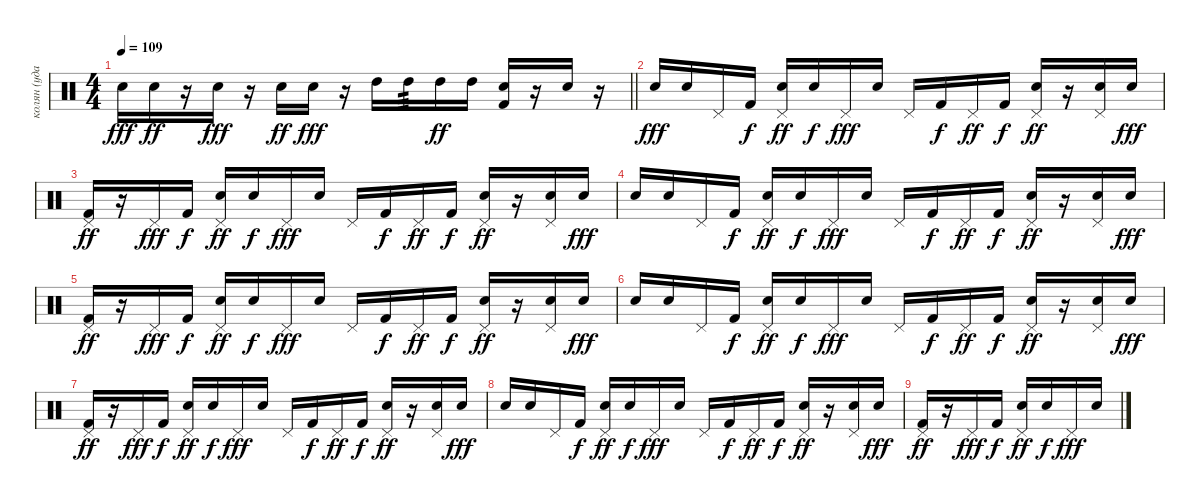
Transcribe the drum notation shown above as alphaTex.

\track ("колян (ударные) v2.0" "колян (уда") {instrument percussion}
\staff
\articulation defaults
\ts (4 4)
\tempo 109
\clef neutral
\barLineRight lightlight
\ks c "Electric Snare (hit)".16{dy fff} "Electric Snare (hit)".16{dy ff}
r.16 "Electric Snare (hit)".16{dy fff} r.16 "Electric Snare (hit)".16{dy ff} "Electric Snare (hit)".16{dy fff} r.16 "High Tom (hit)".16 "High Tom (hit)".16{tp 3} "High Tom (hit)".16{dy ff} "High Tom (hit)".16 ("Snare (hit) 2" "Kick (hit) 2").16 r.16 "Electric Snare (hit)".16 r.16 |
"Snare (hit) 2".16{dy fff} "Snare (hit) 2".16 "Pedal Hi-Hat (hit)".16 "Kick (hit) 2".16{dy f} ("Snare (hit) 2" "Pedal Hi-Hat (hit)").16{dy ff} "Snare (hit) 2".16{dy f} "Pedal Hi-Hat (hit)".16{dy fff} "Snare (hit) 2".16 "Pedal Hi-Hat (hit)".16 "Kick (hit) 2".16{dy f} "Pedal Hi-Hat (hit)".16{dy ff} "Kick (hit) 2".16{dy f} ("Snare (hit) 2" "Pedal Hi-Hat (hit)").16{dy ff} r.16 ("Snare (hit) 2" "Pedal Hi-Hat (hit)").16 "Snare (hit) 2".16{dy fff} |
("Pedal Hi-Hat (hit)" "Kick (hit) 2").16{dy ff} r.16 "Pedal Hi-Hat (hit)".16{dy fff} "Kick (hit) 2".16{dy f} ("Snare (hit) 2" "Pedal Hi-Hat (hit)").16{dy ff} "Snare (hit) 2".16{dy f} "Pedal Hi-Hat (hit)".16{dy fff} "Snare (hit) 2".16 "Pedal Hi-Hat (hit)".16 "Kick (hit) 2".16{dy f} "Pedal Hi-Hat (hit)".16{dy ff} "Kick (hit) 2".16{dy f} ("Snare (hit) 2" "Pedal Hi-Hat (hit)").16{dy ff} r.16 ("Snare (hit) 2" "Pedal Hi-Hat (hit)").16 "Snare (hit) 2".16{dy fff} |
"Snare (hit) 2".16 "Snare (hit) 2".16 "Pedal Hi-Hat (hit)".16 "Kick (hit) 2".16{dy f} ("Snare (hit) 2" "Pedal Hi-Hat (hit)").16{dy ff} "Snare (hit) 2".16{dy f} "Pedal Hi-Hat (hit)".16{dy fff} "Snare (hit) 2".16 "Pedal Hi-Hat (hit)".16 "Kick (hit) 2".16{dy f} "Pedal Hi-Hat (hit)".16{dy ff} "Kick (hit) 2".16{dy f} ("Snare (hit) 2" "Pedal Hi-Hat (hit)").16{dy ff} r.16 ("Snare (hit) 2" "Pedal Hi-Hat (hit)").16 "Snare (hit) 2".16{dy fff} |
("Pedal Hi-Hat (hit)" "Kick (hit) 2").16{dy ff} r.16 "Pedal Hi-Hat (hit)".16{dy fff} "Kick (hit) 2".16{dy f} ("Snare (hit) 2" "Pedal Hi-Hat (hit)").16{dy ff} "Snare (hit) 2".16{dy f} "Pedal Hi-Hat (hit)".16{dy fff} "Snare (hit) 2".16 "Pedal Hi-Hat (hit)".16 "Kick (hit) 2".16{dy f} "Pedal Hi-Hat (hit)".16{dy ff} "Kick (hit) 2".16{dy f} ("Snare (hit) 2" "Pedal Hi-Hat (hit)").16{dy ff} r.16 ("Snare (hit) 2" "Pedal Hi-Hat (hit)").16 "Snare (hit) 2".16{dy fff} |
"Snare (hit) 2".16 "Snare (hit) 2".16 "Pedal Hi-Hat (hit)".16 "Kick (hit) 2".16{dy f} ("Snare (hit) 2" "Pedal Hi-Hat (hit)").16{dy ff} "Snare (hit) 2".16{dy f} "Pedal Hi-Hat (hit)".16{dy fff} "Snare (hit) 2".16 "Pedal Hi-Hat (hit)".16 "Kick (hit) 2".16{dy f} "Pedal Hi-Hat (hit)".16{dy ff} "Kick (hit) 2".16{dy f} ("Snare (hit) 2" "Pedal Hi-Hat (hit)").16{dy ff} r.16 ("Snare (hit) 2" "Pedal Hi-Hat (hit)").16 "Snare (hit) 2".16{dy fff} |
("Pedal Hi-Hat (hit)" "Kick (hit) 2").16{dy ff} r.16 "Pedal Hi-Hat (hit)".16{dy fff} "Kick (hit) 2".16{dy f} ("Snare (hit) 2" "Pedal Hi-Hat (hit)").16{dy ff} "Snare (hit) 2".16{dy f} "Pedal Hi-Hat (hit)".16{dy fff} "Snare (hit) 2".16 "Pedal Hi-Hat (hit)".16 "Kick (hit) 2".16{dy f} "Pedal Hi-Hat (hit)".16{dy ff} "Kick (hit) 2".16{dy f} ("Snare (hit) 2" "Pedal Hi-Hat (hit)").16{dy ff} r.16 ("Snare (hit) 2" "Pedal Hi-Hat (hit)").16 "Snare (hit) 2".16{dy fff} |
"Snare (hit) 2".16 "Snare (hit) 2".16 "Pedal Hi-Hat (hit)".16 "Kick (hit) 2".16{dy f} ("Snare (hit) 2" "Pedal Hi-Hat (hit)").16{dy ff} "Snare (hit) 2".16{dy f} "Pedal Hi-Hat (hit)".16{dy fff} "Snare (hit) 2".16 "Pedal Hi-Hat (hit)".16 "Kick (hit) 2".16{dy f} "Pedal Hi-Hat (hit)".16{dy ff} "Kick (hit) 2".16{dy f} ("Snare (hit) 2" "Pedal Hi-Hat (hit)").16{dy ff} r.16 ("Snare (hit) 2" "Pedal Hi-Hat (hit)").16 "Snare (hit) 2".16{dy fff} |
("Pedal Hi-Hat (hit)" "Kick (hit) 2").16{dy ff} r.16 "Pedal Hi-Hat (hit)".16{dy fff} "Kick (hit) 2".16{dy f} ("Snare (hit) 2" "Pedal Hi-Hat (hit)").16{dy ff} "Snare (hit) 2".16{dy f} "Pedal Hi-Hat (hit)".16{dy fff} "Snare (hit) 2".16
